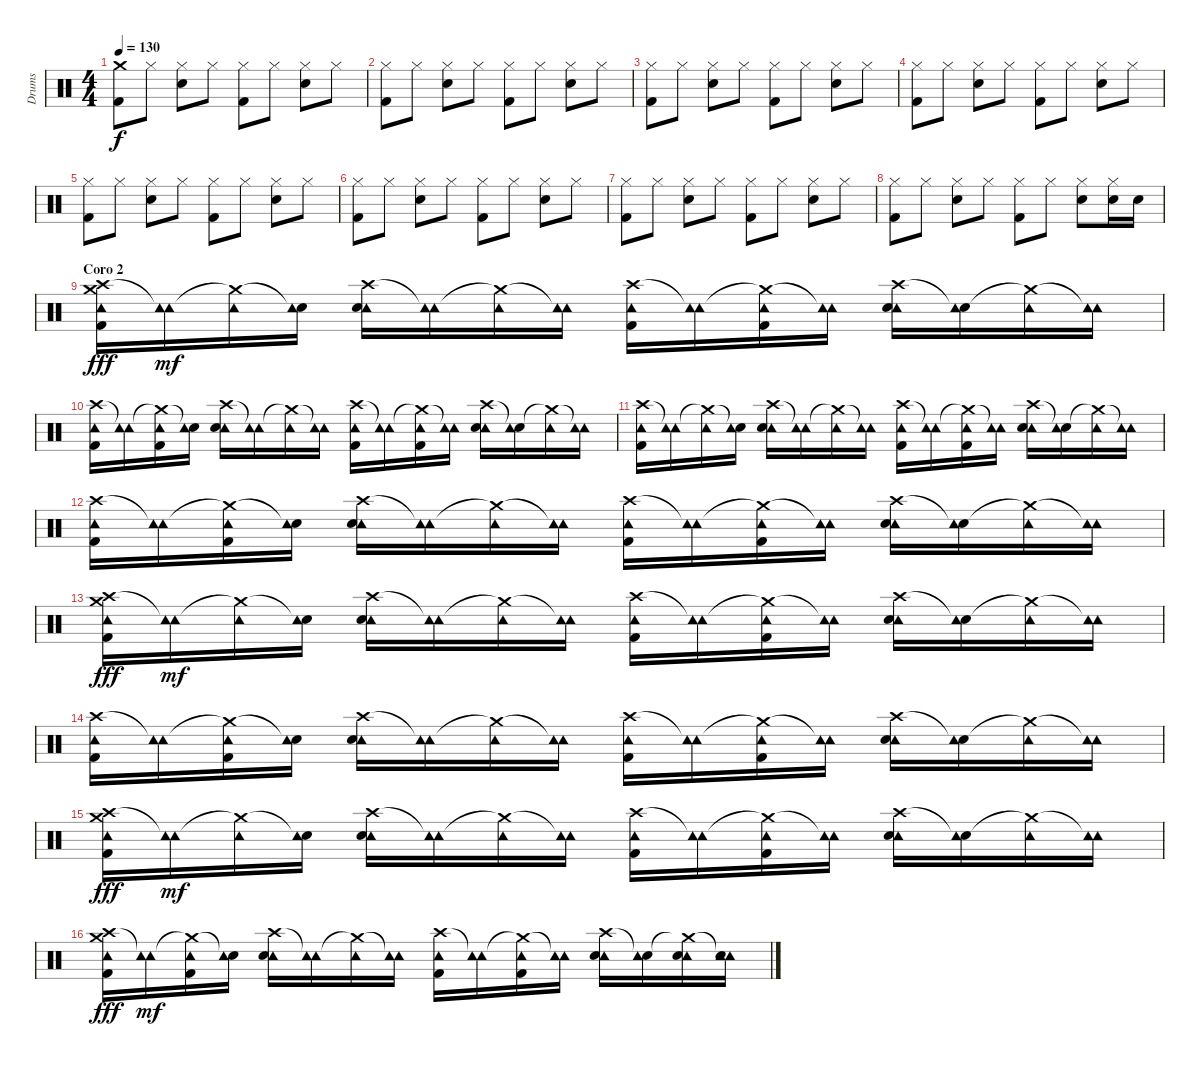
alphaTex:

\track ("Drums" "Drums") {instrument percussion}
\staff {score}
\articulation defaults
\ts (4 4)
\tempo 130
\clef neutral
\ks c
("Crash medium (hit)" "Kick (hit) 2").8{dy f} "Hi-Hat (closed)".8 ("Hi-Hat (closed)" "Snare (hit) 2").8 "Hi-Hat (closed)".8 ("Hi-Hat (closed)" "Kick (hit) 2").8 "Hi-Hat (closed)".8 ("Hi-Hat (closed)" "Snare (hit) 2").8 "Hi-Hat (closed)".8 |
("Hi-Hat (closed)" "Kick (hit) 2").8 "Hi-Hat (closed)".8 ("Hi-Hat (closed)" "Snare (hit) 2").8 "Hi-Hat (closed)".8 ("Hi-Hat (closed)" "Kick (hit) 2").8 "Hi-Hat (closed)".8 ("Hi-Hat (closed)" "Snare (hit) 2").8 "Hi-Hat (closed)".8 |
("Hi-Hat (closed)" "Kick (hit) 2").8 "Hi-Hat (closed)".8 ("Hi-Hat (closed)" "Snare (hit) 2").8 "Hi-Hat (closed)".8 ("Hi-Hat (closed)" "Kick (hit) 2").8 "Hi-Hat (closed)".8 ("Hi-Hat (closed)" "Snare (hit) 2").8 "Hi-Hat (closed)".8 |
("Hi-Hat (closed)" "Kick (hit) 2").8 "Hi-Hat (closed)".8 ("Hi-Hat (closed)" "Snare (hit) 2").8 "Hi-Hat (closed)".8 ("Hi-Hat (closed)" "Kick (hit) 2").8 "Hi-Hat (closed)".8 ("Hi-Hat (closed)" "Snare (hit) 2").8 "Hi-Hat (closed)".8 |
("Hi-Hat (closed)" "Kick (hit) 2").8 "Hi-Hat (closed)".8 ("Hi-Hat (closed)" "Snare (hit) 2").8 "Hi-Hat (closed)".8 ("Hi-Hat (closed)" "Kick (hit) 2").8 "Hi-Hat (closed)".8 ("Hi-Hat (closed)" "Snare (hit) 2").8 "Hi-Hat (closed)".8 |
("Hi-Hat (closed)" "Kick (hit) 2").8 "Hi-Hat (closed)".8 ("Hi-Hat (closed)" "Snare (hit) 2").8 "Hi-Hat (closed)".8 ("Hi-Hat (closed)" "Kick (hit) 2").8 "Hi-Hat (closed)".8 ("Hi-Hat (closed)" "Snare (hit) 2").8 "Hi-Hat (closed)".8 |
("Hi-Hat (closed)" "Kick (hit) 2").8 "Hi-Hat (closed)".8 ("Hi-Hat (closed)" "Snare (hit) 2").8 "Hi-Hat (closed)".8 ("Hi-Hat (closed)" "Kick (hit) 2").8 "Hi-Hat (closed)".8 ("Hi-Hat (closed)" "Snare (hit) 2").8 "Hi-Hat (closed)".8 |
("Hi-Hat (closed)" "Kick (hit) 2").8 "Hi-Hat (closed)".8 ("Hi-Hat (closed)" "Snare (hit) 2").8 "Hi-Hat (closed)".8 ("Hi-Hat (closed)" "Kick (hit) 2").8 "Hi-Hat (closed)".8 ("Hi-Hat (closed)" "Snare (hit) 2").8 ("Hi-Hat (closed)" "Snare (hit) 2").16 "Snare (hit) 2".16 |
\section ("" "Coro 2")
("Crash high (hit)" "Tambourine (hit)" "Crash medium (hit)" "Kick (hit) 2").16{dy fff} ("Tambourine (hit)"{t} "Tambourine (hit)").16{dy mf} ("Crash medium (hit)"{t} "Tambourine (hit)").16 ("Snare (hit)"{t} "Tambourine (hit)").16 ("Crash high (hit)" "Tambourine (hit)" "Snare (hit) 2").16 ("Tambourine (hit)"{t} "Tambourine (hit)").16 ("Crash medium (hit)"{t} "Tambourine (hit)").16 ("Tambourine (hit)"{t} "Tambourine (hit)").16 ("Crash high (hit)" "Tambourine (hit)" "Kick (hit) 2").16 ("Tambourine (hit)"{t} "Tambourine (hit)").16 ("Crash medium (hit)"{t} "Tambourine (hit)" "Kick (hit) 2").16 ("Tambourine (hit)"{t} "Tambourine (hit)").16 ("Crash high (hit)" "Tambourine (hit)" "Snare (hit) 2").16 ("Snare (hit)"{t} "Tambourine (hit)").16 ("Crash medium (hit)"{t} "Tambourine (hit)").16 ("Tambourine (hit)"{t} "Tambourine (hit)").16 |
("Crash high (hit)" "Tambourine (hit)" "Kick (hit) 2").16 ("Tambourine (hit)"{t} "Tambourine (hit)").16 ("Crash medium (hit)"{t} "Tambourine (hit)" "Kick (hit) 2").16 ("Snare (hit)"{t} "Tambourine (hit)").16 ("Crash high (hit)" "Tambourine (hit)" "Snare (hit) 2").16 ("Tambourine (hit)"{t} "Tambourine (hit)").16 ("Crash medium (hit)"{t} "Tambourine (hit)").16 ("Tambourine (hit)"{t} "Tambourine (hit)").16 ("Crash high (hit)" "Tambourine (hit)" "Kick (hit) 2").16 ("Tambourine (hit)"{t} "Tambourine (hit)").16 ("Crash medium (hit)"{t} "Tambourine (hit)" "Kick (hit) 2").16 ("Tambourine (hit)"{t} "Tambourine (hit)").16 ("Crash high (hit)" "Tambourine (hit)" "Snare (hit) 2").16 ("Snare (hit)"{t} "Tambourine (hit)").16 ("Crash medium (hit)"{t} "Tambourine (hit)").16 ("Tambourine (hit)"{t} "Tambourine (hit)").16 |
("Crash high (hit)" "Tambourine (hit)" "Kick (hit) 2").16 ("Tambourine (hit)"{t} "Tambourine (hit)").16 ("Crash medium (hit)"{t} "Tambourine (hit)").16 ("Snare (hit)"{t} "Tambourine (hit)").16 ("Crash high (hit)" "Tambourine (hit)" "Snare (hit) 2").16 ("Tambourine (hit)"{t} "Tambourine (hit)").16 ("Crash medium (hit)"{t} "Tambourine (hit)").16 ("Tambourine (hit)"{t} "Tambourine (hit)").16 ("Crash high (hit)" "Tambourine (hit)" "Kick (hit) 2").16 ("Tambourine (hit)"{t} "Tambourine (hit)").16 ("Crash medium (hit)"{t} "Tambourine (hit)" "Kick (hit) 2").16 ("Tambourine (hit)"{t} "Tambourine (hit)").16 ("Crash high (hit)" "Tambourine (hit)" "Snare (hit) 2").16 ("Snare (hit)"{t} "Tambourine (hit)").16 ("Crash medium (hit)"{t} "Tambourine (hit)").16 ("Tambourine (hit)"{t} "Tambourine (hit)").16 |
("Crash high (hit)" "Tambourine (hit)" "Kick (hit) 2").16 ("Tambourine (hit)"{t} "Tambourine (hit)").16 ("Crash medium (hit)"{t} "Tambourine (hit)" "Kick (hit) 2").16 ("Snare (hit)"{t} "Tambourine (hit)").16 ("Crash high (hit)" "Tambourine (hit)" "Snare (hit) 2").16 ("Tambourine (hit)"{t} "Tambourine (hit)").16 ("Crash medium (hit)"{t} "Tambourine (hit)").16 ("Tambourine (hit)"{t} "Tambourine (hit)").16 ("Crash high (hit)" "Tambourine (hit)" "Kick (hit) 2").16 ("Tambourine (hit)"{t} "Tambourine (hit)").16 ("Crash medium (hit)"{t} "Tambourine (hit)" "Kick (hit) 2").16 ("Tambourine (hit)"{t} "Tambourine (hit)").16 ("Crash high (hit)" "Tambourine (hit)" "Snare (hit) 2").16 ("Snare (hit)"{t} "Tambourine (hit)").16 ("Crash medium (hit)"{t} "Tambourine (hit)").16 ("Tambourine (hit)"{t} "Tambourine (hit)").16 |
("Crash high (hit)" "Tambourine (hit)" "Crash medium (hit)" "Kick (hit) 2").16{dy fff} ("Tambourine (hit)"{t} "Tambourine (hit)").16{dy mf} ("Crash medium (hit)"{t} "Tambourine (hit)").16 ("Snare (hit)"{t} "Tambourine (hit)").16 ("Crash high (hit)" "Tambourine (hit)" "Snare (hit) 2").16 ("Tambourine (hit)"{t} "Tambourine (hit)").16 ("Crash medium (hit)"{t} "Tambourine (hit)").16 ("Tambourine (hit)"{t} "Tambourine (hit)").16 ("Crash high (hit)" "Tambourine (hit)" "Kick (hit) 2").16 ("Tambourine (hit)"{t} "Tambourine (hit)").16 ("Crash medium (hit)"{t} "Tambourine (hit)" "Kick (hit) 2").16 ("Tambourine (hit)"{t} "Tambourine (hit)").16 ("Crash high (hit)" "Tambourine (hit)" "Snare (hit) 2").16 ("Snare (hit)"{t} "Tambourine (hit)").16 ("Crash medium (hit)"{t} "Tambourine (hit)").16 ("Tambourine (hit)"{t} "Tambourine (hit)").16 |
("Crash high (hit)" "Tambourine (hit)" "Kick (hit) 2").16 ("Tambourine (hit)"{t} "Tambourine (hit)").16 ("Crash medium (hit)"{t} "Tambourine (hit)" "Kick (hit) 2").16 ("Snare (hit)"{t} "Tambourine (hit)").16 ("Crash high (hit)" "Tambourine (hit)" "Snare (hit) 2").16 ("Tambourine (hit)"{t} "Tambourine (hit)").16 ("Crash medium (hit)"{t} "Tambourine (hit)").16 ("Tambourine (hit)"{t} "Tambourine (hit)").16 ("Crash high (hit)" "Tambourine (hit)" "Kick (hit) 2").16 ("Tambourine (hit)"{t} "Tambourine (hit)").16 ("Crash medium (hit)"{t} "Tambourine (hit)" "Kick (hit) 2").16 ("Tambourine (hit)"{t} "Tambourine (hit)").16 ("Crash high (hit)" "Tambourine (hit)" "Snare (hit) 2").16 ("Snare (hit)"{t} "Tambourine (hit)").16 ("Crash medium (hit)"{t} "Tambourine (hit)").16 ("Tambourine (hit)"{t} "Tambourine (hit)").16 |
("Crash high (hit)" "Tambourine (hit)" "Crash medium (hit)" "Kick (hit) 2").16{dy fff} ("Tambourine (hit)"{t} "Tambourine (hit)").16{dy mf} ("Crash medium (hit)"{t} "Tambourine (hit)").16 ("Snare (hit)"{t} "Tambourine (hit)").16 ("Crash high (hit)" "Tambourine (hit)" "Snare (hit) 2").16 ("Tambourine (hit)"{t} "Tambourine (hit)").16 ("Crash medium (hit)"{t} "Tambourine (hit)").16 ("Tambourine (hit)"{t} "Tambourine (hit)").16 ("Crash high (hit)" "Tambourine (hit)" "Kick (hit) 2").16 ("Tambourine (hit)"{t} "Tambourine (hit)").16 ("Crash medium (hit)"{t} "Tambourine (hit)" "Kick (hit) 2").16 ("Tambourine (hit)"{t} "Tambourine (hit)").16 ("Crash high (hit)" "Tambourine (hit)" "Snare (hit) 2").16 ("Snare (hit)"{t} "Tambourine (hit)").16 ("Crash medium (hit)"{t} "Tambourine (hit)").16 ("Tambourine (hit)"{t} "Tambourine (hit)").16 |
("Crash high (hit)" "Tambourine (hit)" "Crash medium (hit)" "Kick (hit) 2").16{dy fff} ("Tambourine (hit)"{t} "Tambourine (hit)").16{dy mf} ("Crash medium (hit)"{t} "Tambourine (hit)" "Kick (hit) 2").16 ("Snare (hit)"{t} "Tambourine (hit)").16 ("Crash high (hit)" "Tambourine (hit)" "Snare (hit) 2").16 ("Tambourine (hit)"{t} "Tambourine (hit)").16 ("Crash medium (hit)"{t} "Tambourine (hit)").16 ("Tambourine (hit)"{t} "Tambourine (hit)").16 ("Crash high (hit)" "Tambourine (hit)" "Kick (hit) 2").16 ("Tambourine (hit)"{t} "Tambourine (hit)").16 ("Crash medium (hit)"{t} "Tambourine (hit)" "Kick (hit) 2").16 ("Tambourine (hit)"{t} "Tambourine (hit)").16 ("Crash high (hit)" "Tambourine (hit)" "Snare (hit) 2").16 ("Snare (hit)"{t} "Tambourine (hit)").16 ("Crash medium (hit)"{t} "Tambourine (hit)" "Snare (hit) 2").16 ("Tambourine (hit)"{t} "Tambourine (hit)" "Snare (hit) 2").16
